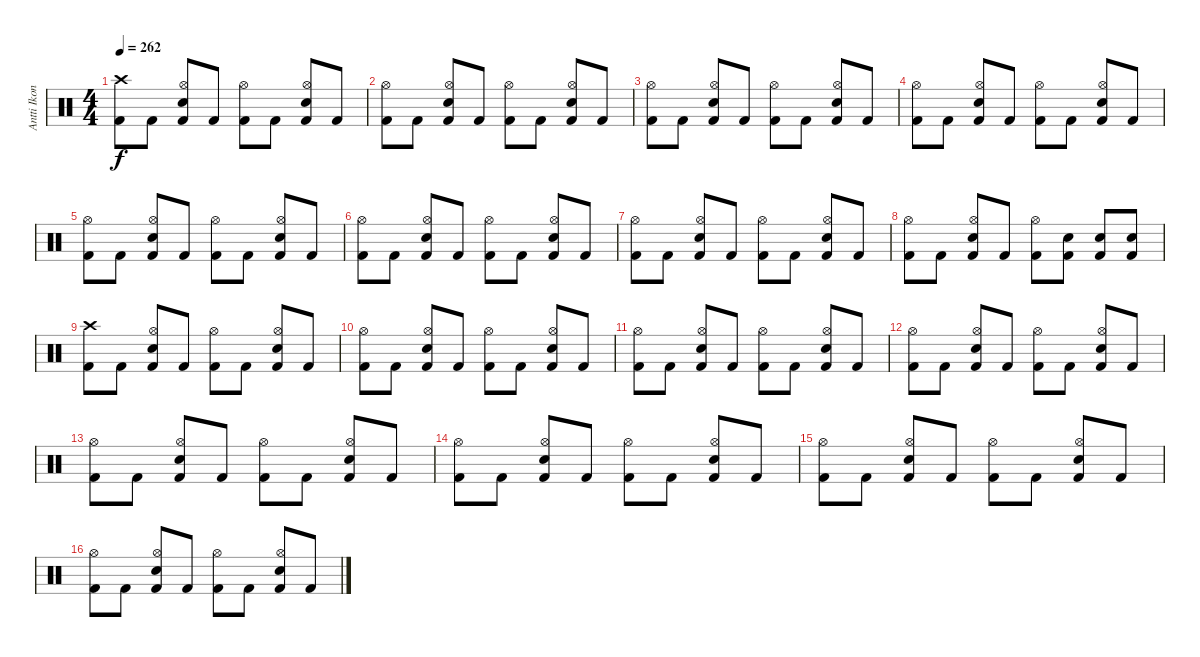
\track ("Antti Ikonen" "Antti Ikon") {instrument percussion}
\staff {score}
\articulation defaults
\ts (4 4)
\tempo 262
\clef neutral
\ks c
("Crash high (hit)" "Kick (hit) 2").8{dy f} "Kick (hit) 2".8 ("Hi-Hat (open)" "Electric Snare (hit)" "Kick (hit) 2").8 "Kick (hit) 2".8 ("Hi-Hat (open)" "Kick (hit) 2").8 "Kick (hit) 2".8 ("Hi-Hat (open)" "Electric Snare (hit)" "Kick (hit) 2").8 "Kick (hit) 2".8 |
("Hi-Hat (open)" "Kick (hit) 2").8 "Kick (hit) 2".8 ("Hi-Hat (open)" "Electric Snare (hit)" "Kick (hit) 2").8 "Kick (hit) 2".8 ("Hi-Hat (open)" "Kick (hit) 2").8 "Kick (hit) 2".8 ("Hi-Hat (open)" "Electric Snare (hit)" "Kick (hit) 2").8 "Kick (hit) 2".8 |
("Hi-Hat (open)" "Kick (hit) 2").8 "Kick (hit) 2".8 ("Hi-Hat (open)" "Electric Snare (hit)" "Kick (hit) 2").8 "Kick (hit) 2".8 ("Hi-Hat (open)" "Kick (hit) 2").8 "Kick (hit) 2".8 ("Hi-Hat (open)" "Electric Snare (hit)" "Kick (hit) 2").8 "Kick (hit) 2".8 |
("Hi-Hat (open)" "Kick (hit) 2").8 "Kick (hit) 2".8 ("Hi-Hat (open)" "Electric Snare (hit)" "Kick (hit) 2").8 "Kick (hit) 2".8 ("Hi-Hat (open)" "Kick (hit) 2").8 "Kick (hit) 2".8 ("Hi-Hat (open)" "Electric Snare (hit)" "Kick (hit) 2").8 "Kick (hit) 2".8 |
("Hi-Hat (open)" "Kick (hit) 2").8 "Kick (hit) 2".8 ("Hi-Hat (open)" "Electric Snare (hit)" "Kick (hit) 2").8 "Kick (hit) 2".8 ("Hi-Hat (open)" "Kick (hit) 2").8 "Kick (hit) 2".8 ("Hi-Hat (open)" "Electric Snare (hit)" "Kick (hit) 2").8 "Kick (hit) 2".8 |
("Hi-Hat (open)" "Kick (hit) 2").8 "Kick (hit) 2".8 ("Hi-Hat (open)" "Electric Snare (hit)" "Kick (hit) 2").8 "Kick (hit) 2".8 ("Hi-Hat (open)" "Kick (hit) 2").8 "Kick (hit) 2".8 ("Hi-Hat (open)" "Electric Snare (hit)" "Kick (hit) 2").8 "Kick (hit) 2".8 |
("Hi-Hat (open)" "Kick (hit) 2").8 "Kick (hit) 2".8 ("Hi-Hat (open)" "Electric Snare (hit)" "Kick (hit) 2").8 "Kick (hit) 2".8 ("Hi-Hat (open)" "Kick (hit) 2").8 "Kick (hit) 2".8 ("Hi-Hat (open)" "Electric Snare (hit)" "Kick (hit) 2").8 "Kick (hit) 2".8 |
("Hi-Hat (open)" "Kick (hit) 2").8 "Kick (hit) 2".8 ("Hi-Hat (open)" "Electric Snare (hit)" "Kick (hit) 2").8 "Kick (hit) 2".8 ("Hi-Hat (open)" "Kick (hit) 2").8 ("Electric Snare (hit)" "Kick (hit) 2").8 ("Electric Snare (hit)" "Kick (hit) 2").8 ("Electric Snare (hit)" "Kick (hit) 2").8 |
("Crash high (hit)" "Kick (hit) 2").8 "Kick (hit) 2".8 ("Hi-Hat (open)" "Electric Snare (hit)" "Kick (hit) 2").8 "Kick (hit) 2".8 ("Hi-Hat (open)" "Kick (hit) 2").8 "Kick (hit) 2".8 ("Hi-Hat (open)" "Electric Snare (hit)" "Kick (hit) 2").8 "Kick (hit) 2".8 |
("Hi-Hat (open)" "Kick (hit) 2").8 "Kick (hit) 2".8 ("Hi-Hat (open)" "Electric Snare (hit)" "Kick (hit) 2").8 "Kick (hit) 2".8 ("Hi-Hat (open)" "Kick (hit) 2").8 "Kick (hit) 2".8 ("Hi-Hat (open)" "Electric Snare (hit)" "Kick (hit) 2").8 "Kick (hit) 2".8 |
("Hi-Hat (open)" "Kick (hit) 2").8 "Kick (hit) 2".8 ("Hi-Hat (open)" "Electric Snare (hit)" "Kick (hit) 2").8 "Kick (hit) 2".8 ("Hi-Hat (open)" "Kick (hit) 2").8 "Kick (hit) 2".8 ("Hi-Hat (open)" "Electric Snare (hit)" "Kick (hit) 2").8 "Kick (hit) 2".8 |
("Hi-Hat (open)" "Kick (hit) 2").8 "Kick (hit) 2".8 ("Hi-Hat (open)" "Electric Snare (hit)" "Kick (hit) 2").8 "Kick (hit) 2".8 ("Hi-Hat (open)" "Kick (hit) 2").8 "Kick (hit) 2".8 ("Hi-Hat (open)" "Electric Snare (hit)" "Kick (hit) 2").8 "Kick (hit) 2".8 |
("Hi-Hat (open)" "Kick (hit) 2").8 "Kick (hit) 2".8 ("Hi-Hat (open)" "Electric Snare (hit)" "Kick (hit) 2").8 "Kick (hit) 2".8 ("Hi-Hat (open)" "Kick (hit) 2").8 "Kick (hit) 2".8 ("Hi-Hat (open)" "Electric Snare (hit)" "Kick (hit) 2").8 "Kick (hit) 2".8 |
("Hi-Hat (open)" "Kick (hit) 2").8 "Kick (hit) 2".8 ("Hi-Hat (open)" "Electric Snare (hit)" "Kick (hit) 2").8 "Kick (hit) 2".8 ("Hi-Hat (open)" "Kick (hit) 2").8 "Kick (hit) 2".8 ("Hi-Hat (open)" "Electric Snare (hit)" "Kick (hit) 2").8 "Kick (hit) 2".8 |
("Hi-Hat (open)" "Kick (hit) 2").8 "Kick (hit) 2".8 ("Hi-Hat (open)" "Electric Snare (hit)" "Kick (hit) 2").8 "Kick (hit) 2".8 ("Hi-Hat (open)" "Kick (hit) 2").8 "Kick (hit) 2".8 ("Hi-Hat (open)" "Electric Snare (hit)" "Kick (hit) 2").8 "Kick (hit) 2".8 |
("Hi-Hat (open)" "Kick (hit) 2").8 "Kick (hit) 2".8 ("Hi-Hat (open)" "Electric Snare (hit)" "Kick (hit) 2").8 "Kick (hit) 2".8 ("Hi-Hat (open)" "Kick (hit) 2").8 "Kick (hit) 2".8 ("Hi-Hat (open)" "Electric Snare (hit)" "Kick (hit) 2").8 "Kick (hit) 2".8
